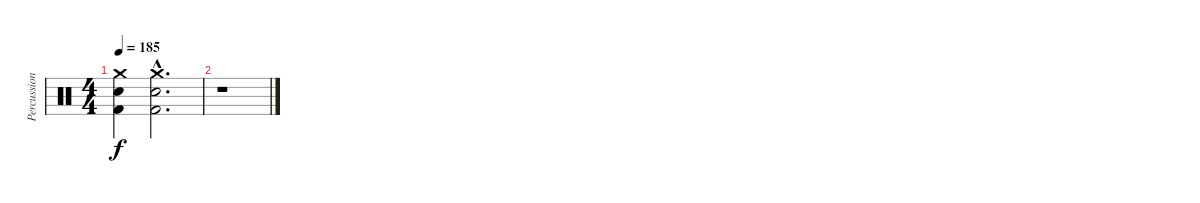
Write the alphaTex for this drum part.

\track ("Percussions" "Percussion") {instrument percussion}
\staff {score}
\articulation defaults
\ts (4 4)
\tempo 185
\clef neutral
\ks c
("Crash medium (hit)" "Snare (hit) 2" "Kick (hit) 2").4{dy f} ("Crash medium (hit)"{hac} "Snare (hit) 2"{hac} "Kick (hit) 2"{hac}).2{d} |
r.1
